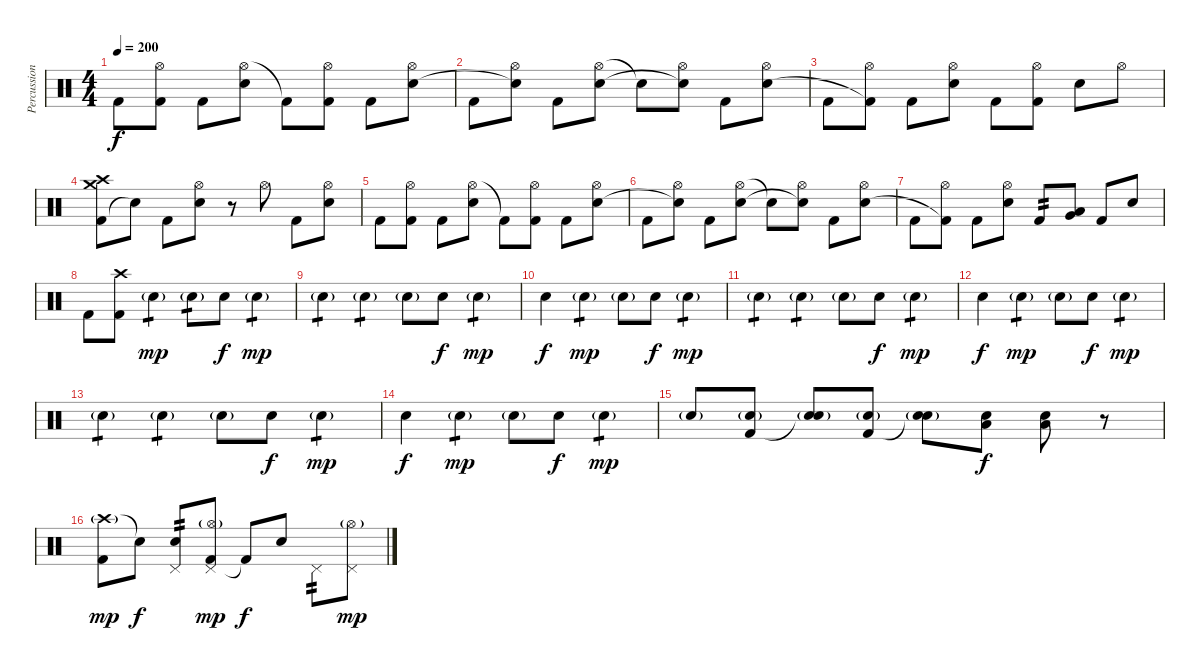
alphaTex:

\track ("Percussion" "Percussion") {instrument percussion}
\staff {score}
\articulation defaults
\ts (4 4)
\tempo 200
\clef neutral
\ks c "Kick (hit) 2".8{dy f}
("Hi-Hat (open)" "Kick (hit) 2"{t}).8 "Kick (hit) 2".8 ("Hi-Hat (open)" "Snare (hit) 2").8 "Kick (hit) 2"{t}.8 ("Hi-Hat (open)" "Kick (hit) 2").8 "Kick (hit) 2".8 ("Hi-Hat (open)" "Snare (hit) 2").8 |
"Kick (hit) 2".8 ("Hi-Hat (open)" "Snare (hit)"{t}).8 "Kick (hit) 2".8 ("Hi-Hat (open)" "Snare (hit) 2").8 "Snare (hit)"{t}.8 ("Hi-Hat (open)" "Snare (hit)"{t}).8 "Kick (hit) 2".8 ("Hi-Hat (open)" "Snare (hit) 2").8 |
"Kick (hit) 2".8 ("Hi-Hat (open)" "Kick (hit) 2"{t}).8 "Kick (hit) 2".8 ("Hi-Hat (open)" "Snare (hit) 2").8 "Kick (hit) 2".8 ("Hi-Hat (open)" "Kick (hit) 2").8 "Snare (hit) 2".8 "Hi-Hat (open)".8 |
("Kick (hit) 2" "Crash medium (hit)" "Crash high (hit)").8 "Snare (hit)"{t}.8 "Kick (hit) 2".8 ("Snare (hit) 2" "Hi-Hat (open)").8 r.8 "Hi-Hat (open)".8 "Kick (hit) 2".8 ("Hi-Hat (open)" "Snare (hit) 2").8 |
"Kick (hit) 2".8 ("Hi-Hat (open)" "Kick (hit) 2").8 "Kick (hit) 2".8 ("Hi-Hat (open)" "Snare (hit) 2").8 "Kick (hit) 2"{t}.8 ("Hi-Hat (open)" "Kick (hit) 2").8 "Kick (hit) 2".8 ("Hi-Hat (open)" "Snare (hit) 2").8 |
"Kick (hit) 2".8 ("Hi-Hat (open)" "Snare (hit)"{t}).8 "Kick (hit) 2".8 ("Hi-Hat (open)" "Snare (hit) 2").8 "Snare (hit)"{t}.8 ("Hi-Hat (open)" "Snare (hit)"{t}).8 "Kick (hit) 2".8 ("Hi-Hat (open)" "Snare (hit) 2").8 |
"Kick (hit) 2".8 ("Hi-Hat (open)" "Kick (hit) 2"{t}).8 "Kick (hit) 2".8 ("Hi-Hat (open)" "Snare (hit) 2").8 "Kick (hit) 2".8{tp 2} ("Low Floor Tom (hit)" "Very Low Tom (hit)").8 "Kick (hit) 2".8 "Snare (hit) 2".8 |
"Kick (hit) 2".8 ("Crash high (hit)" "Kick (hit) 2").8 "Snare (hit) 2"{g}.4{tp 1 dy mp} "Snare (hit) 2"{g}.8{tp 1} "Snare (hit) 2".8{dy f} "Snare (hit) 2"{g}.4{tp 1 dy mp} |
"Snare (hit) 2"{g}.4{tp 1} "Snare (hit) 2"{g}.4{tp 1} "Snare (hit) 2"{g}.8 "Snare (hit) 2".8{dy f} "Snare (hit) 2"{g}.4{tp 1 dy mp} |
"Snare (hit) 2".4{dy f} "Snare (hit) 2"{g}.4{tp 1 dy mp} "Snare (hit) 2"{g}.8 "Snare (hit) 2".8{dy f} "Snare (hit) 2"{g}.4{tp 1 dy mp} |
"Snare (hit) 2"{g}.4{tp 1} "Snare (hit) 2"{g}.4{tp 1} "Snare (hit) 2"{g}.8 "Snare (hit) 2".8{dy f} "Snare (hit) 2"{g}.4{tp 1 dy mp} |
"Snare (hit) 2".4{dy f} "Snare (hit) 2"{g}.4{tp 1 dy mp} "Snare (hit) 2"{g}.8 "Snare (hit) 2".8{dy f} "Snare (hit) 2"{g}.4{tp 1 dy mp} |
"Snare (hit) 2"{g}.4{tp 1} "Snare (hit) 2"{g}.4{tp 1} "Snare (hit) 2"{g}.8 "Snare (hit) 2".8{dy f} "Snare (hit) 2"{g}.4{tp 1 dy mp} |
"Snare (hit) 2".4{dy f} "Snare (hit) 2"{g}.4{tp 1 dy mp} "Snare (hit) 2"{g}.8 "Snare (hit) 2".8{dy f} "Snare (hit) 2"{g}.4{tp 1 dy mp} |
"Snare (hit) 2"{g}.8 ("Kick (hit) 2" "Snare (hit) 2"{g}).8 ("Snare (hit)"{t} "Snare (hit) 2"{g}).8 ("Kick (hit) 2" "Snare (hit) 2"{g}).8 ("Snare (hit)"{t} "Snare (hit) 2"{g}).8 ("Snare (hit) 2" "Low Floor Tom (hit)").8{dy f} ("Snare (hit) 2" "Low Floor Tom (hit)").8 r.8 |
("Crash high (hit)"{g} "Kick (hit) 2").8{dy mp} "Snare (hit)"{t}.8{dy f} ("Pedal Hi-Hat (hit)" "Snare (hit) 2").8{tp 2} ("Pedal Hi-Hat (hit)" "Hi-Hat (open)"{g} "Kick (hit) 2").8{dy mp} "Kick (hit) 2"{t}.8{dy f} "Snare (hit) 2".8 "Pedal Hi-Hat (hit)".8{tp 2} ("Pedal Hi-Hat (hit)" "Hi-Hat (open)"{g}).8{dy mp}
